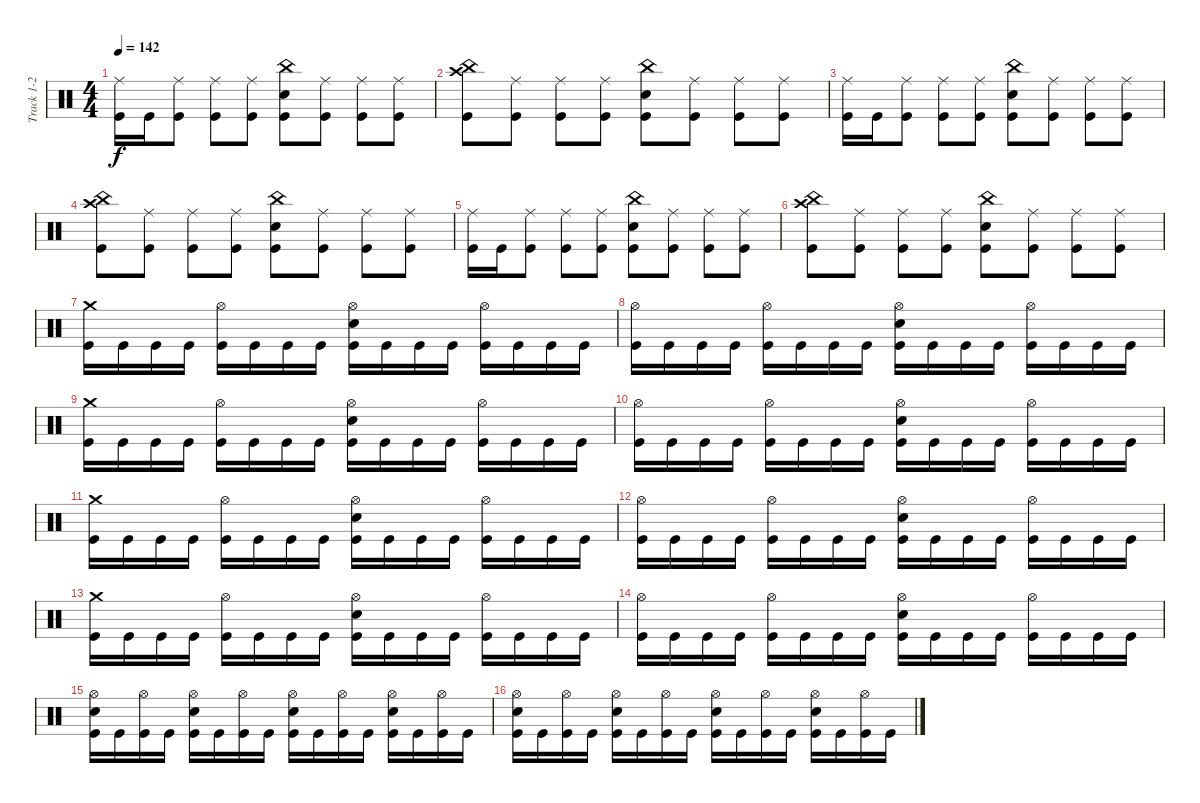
\track ("Track 1-2" "Track 1-2") {instrument percussion}
\staff {score}
\articulation defaults
\ts (4 4)
\tempo 142
\clef neutral
\ks c
("Ride (middle)" "Kick (hit)").16{dy f} "Kick (hit)".16 ("Ride (middle)" "Kick (hit)").8 ("Ride (middle)" "Kick (hit)").8 ("Ride (middle)" "Kick (hit)").8 ("China (hit)" "Electric Snare (hit)" "Kick (hit)").8 ("Ride (middle)" "Kick (hit)").8 ("Ride (middle)" "Kick (hit)").8 ("Ride (middle)" "Kick (hit)").8 |
("China (hit)" "Crash high (hit)" "Kick (hit)").8 ("Ride (middle)" "Kick (hit)").8 ("Ride (middle)" "Kick (hit)").8 ("Ride (middle)" "Kick (hit)").8 ("China (hit)" "Electric Snare (hit)" "Kick (hit)").8 ("Ride (middle)" "Kick (hit)").8 ("Ride (middle)" "Kick (hit)").8 ("Ride (middle)" "Kick (hit)").8 |
("Ride (middle)" "Kick (hit)").16 "Kick (hit)".16 ("Ride (middle)" "Kick (hit)").8 ("Ride (middle)" "Kick (hit)").8 ("Ride (middle)" "Kick (hit)").8 ("China (hit)" "Electric Snare (hit)" "Kick (hit)").8 ("Ride (middle)" "Kick (hit)").8 ("Ride (middle)" "Kick (hit)").8 ("Ride (middle)" "Kick (hit)").8 |
("China (hit)" "Crash high (hit)" "Kick (hit)").8 ("Ride (middle)" "Kick (hit)").8 ("Ride (middle)" "Kick (hit)").8 ("Ride (middle)" "Kick (hit)").8 ("China (hit)" "Electric Snare (hit)" "Kick (hit)").8 ("Ride (middle)" "Kick (hit)").8 ("Ride (middle)" "Kick (hit)").8 ("Ride (middle)" "Kick (hit)").8 |
("Ride (middle)" "Kick (hit)").16 "Kick (hit)".16 ("Ride (middle)" "Kick (hit)").8 ("Ride (middle)" "Kick (hit)").8 ("Ride (middle)" "Kick (hit)").8 ("China (hit)" "Electric Snare (hit)" "Kick (hit)").8 ("Ride (middle)" "Kick (hit)").8 ("Ride (middle)" "Kick (hit)").8 ("Ride (middle)" "Kick (hit)").8 |
("China (hit)" "Crash high (hit)" "Kick (hit)").8 ("Ride (middle)" "Kick (hit)").8 ("Ride (middle)" "Kick (hit)").8 ("Ride (middle)" "Kick (hit)").8 ("China (hit)" "Electric Snare (hit)" "Kick (hit)").8 ("Ride (middle)" "Kick (hit)").8 ("Ride (middle)" "Kick (hit)").8 ("Ride (middle)" "Kick (hit)").8 |
("Crash medium (hit)" "Kick (hit)").16 "Kick (hit)".16 "Kick (hit)".16 "Kick (hit)".16 ("Hi-Hat (open)" "Kick (hit)").16 "Kick (hit)".16 "Kick (hit)".16 "Kick (hit)".16 ("Hi-Hat (open)" "Electric Snare (hit)" "Kick (hit)").16 "Kick (hit)".16 "Kick (hit)".16 "Kick (hit)".16 ("Hi-Hat (open)" "Kick (hit)").16 "Kick (hit)".16 "Kick (hit)".16 "Kick (hit)".16 |
("Hi-Hat (open)" "Kick (hit)").16 "Kick (hit)".16 "Kick (hit)".16 "Kick (hit)".16 ("Hi-Hat (open)" "Kick (hit)").16 "Kick (hit)".16 "Kick (hit)".16 "Kick (hit)".16 ("Hi-Hat (open)" "Electric Snare (hit)" "Kick (hit)").16 "Kick (hit)".16 "Kick (hit)".16 "Kick (hit)".16 ("Hi-Hat (open)" "Kick (hit)").16 "Kick (hit)".16 "Kick (hit)".16 "Kick (hit)".16 |
("Crash medium (hit)" "Kick (hit)").16 "Kick (hit)".16 "Kick (hit)".16 "Kick (hit)".16 ("Hi-Hat (open)" "Kick (hit)").16 "Kick (hit)".16 "Kick (hit)".16 "Kick (hit)".16 ("Hi-Hat (open)" "Electric Snare (hit)" "Kick (hit)").16 "Kick (hit)".16 "Kick (hit)".16 "Kick (hit)".16 ("Hi-Hat (open)" "Kick (hit)").16 "Kick (hit)".16 "Kick (hit)".16 "Kick (hit)".16 |
("Hi-Hat (open)" "Kick (hit)").16 "Kick (hit)".16 "Kick (hit)".16 "Kick (hit)".16 ("Hi-Hat (open)" "Kick (hit)").16 "Kick (hit)".16 "Kick (hit)".16 "Kick (hit)".16 ("Hi-Hat (open)" "Electric Snare (hit)" "Kick (hit)").16 "Kick (hit)".16 "Kick (hit)".16 "Kick (hit)".16 ("Hi-Hat (open)" "Kick (hit)").16 "Kick (hit)".16 "Kick (hit)".16 "Kick (hit)".16 |
("Crash medium (hit)" "Kick (hit)").16 "Kick (hit)".16 "Kick (hit)".16 "Kick (hit)".16 ("Hi-Hat (open)" "Kick (hit)").16 "Kick (hit)".16 "Kick (hit)".16 "Kick (hit)".16 ("Hi-Hat (open)" "Electric Snare (hit)" "Kick (hit)").16 "Kick (hit)".16 "Kick (hit)".16 "Kick (hit)".16 ("Hi-Hat (open)" "Kick (hit)").16 "Kick (hit)".16 "Kick (hit)".16 "Kick (hit)".16 |
("Hi-Hat (open)" "Kick (hit)").16 "Kick (hit)".16 "Kick (hit)".16 "Kick (hit)".16 ("Hi-Hat (open)" "Kick (hit)").16 "Kick (hit)".16 "Kick (hit)".16 "Kick (hit)".16 ("Hi-Hat (open)" "Electric Snare (hit)" "Kick (hit)").16 "Kick (hit)".16 "Kick (hit)".16 "Kick (hit)".16 ("Hi-Hat (open)" "Kick (hit)").16 "Kick (hit)".16 "Kick (hit)".16 "Kick (hit)".16 |
("Crash medium (hit)" "Kick (hit)").16 "Kick (hit)".16 "Kick (hit)".16 "Kick (hit)".16 ("Hi-Hat (open)" "Kick (hit)").16 "Kick (hit)".16 "Kick (hit)".16 "Kick (hit)".16 ("Hi-Hat (open)" "Electric Snare (hit)" "Kick (hit)").16 "Kick (hit)".16 "Kick (hit)".16 "Kick (hit)".16 ("Hi-Hat (open)" "Kick (hit)").16 "Kick (hit)".16 "Kick (hit)".16 "Kick (hit)".16 |
("Hi-Hat (open)" "Kick (hit)").16 "Kick (hit)".16 "Kick (hit)".16 "Kick (hit)".16 ("Hi-Hat (open)" "Kick (hit)").16 "Kick (hit)".16 "Kick (hit)".16 "Kick (hit)".16 ("Hi-Hat (open)" "Electric Snare (hit)" "Kick (hit)").16 "Kick (hit)".16 "Kick (hit)".16 "Kick (hit)".16 ("Hi-Hat (open)" "Kick (hit)").16 "Kick (hit)".16 "Kick (hit)".16 "Kick (hit)".16 |
("Hi-Hat (open)" "Electric Snare (hit)" "Kick (hit)").16 "Kick (hit)".16 ("Hi-Hat (open)" "Kick (hit)").16 "Kick (hit)".16 ("Hi-Hat (open)" "Electric Snare (hit)" "Kick (hit)").16 "Kick (hit)".16 ("Hi-Hat (open)" "Kick (hit)").16 "Kick (hit)".16 ("Hi-Hat (open)" "Electric Snare (hit)" "Kick (hit)").16 "Kick (hit)".16 ("Hi-Hat (open)" "Kick (hit)").16 "Kick (hit)".16 ("Hi-Hat (open)" "Electric Snare (hit)" "Kick (hit)").16 "Kick (hit)".16 ("Hi-Hat (open)" "Kick (hit)").16 "Kick (hit)".16 |
("Hi-Hat (open)" "Electric Snare (hit)" "Kick (hit)").16 "Kick (hit)".16 ("Hi-Hat (open)" "Kick (hit)").16 "Kick (hit)".16 ("Hi-Hat (open)" "Electric Snare (hit)" "Kick (hit)").16 "Kick (hit)".16 ("Hi-Hat (open)" "Kick (hit)").16 "Kick (hit)".16 ("Hi-Hat (open)" "Electric Snare (hit)" "Kick (hit)").16 "Kick (hit)".16 ("Hi-Hat (open)" "Kick (hit)").16 "Kick (hit)".16 ("Hi-Hat (open)" "Electric Snare (hit)" "Kick (hit)").16 "Kick (hit)".16 ("Hi-Hat (open)" "Kick (hit)").16 "Kick (hit)".16
